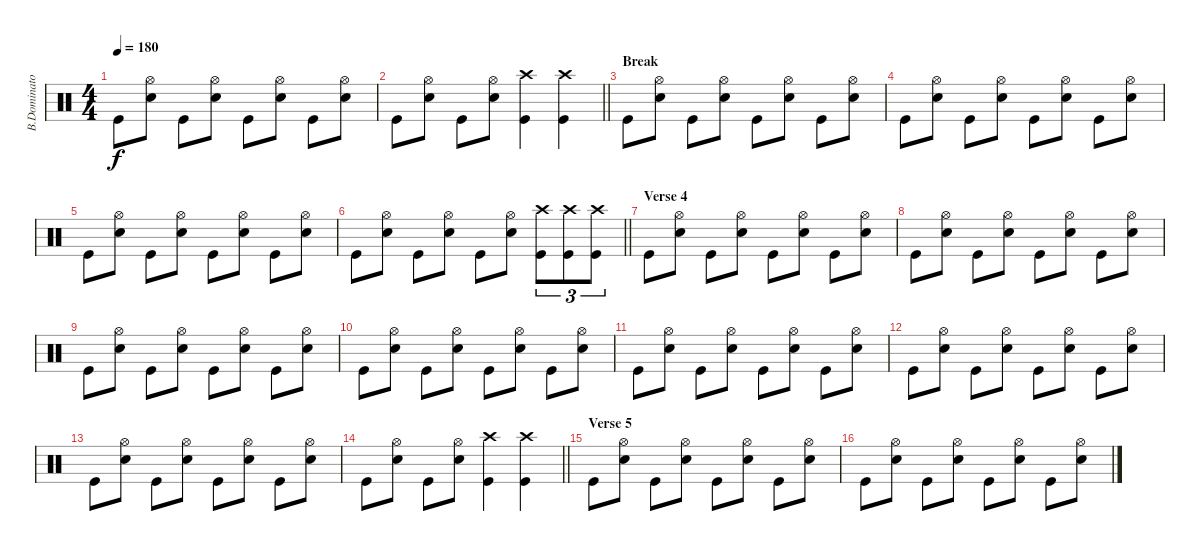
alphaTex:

\track ("B.Dominator" "B.Dominato") {instrument percussion}
\staff {score}
\articulation defaults
\ts (4 4)
\tempo 180
\clef neutral
\ks c "Kick (hit)".8{dy f}
("Hi-Hat (open)" "Snare (hit) 2").8 "Kick (hit)".8 ("Hi-Hat (open)" "Snare (hit) 2").8 "Kick (hit)".8 ("Hi-Hat (open)" "Snare (hit) 2").8 "Kick (hit)".8 ("Hi-Hat (open)" "Snare (hit) 2").8 |
\barLineRight lightlight "Kick (hit)".8
("Hi-Hat (open)" "Snare (hit) 2").8 "Kick (hit)".8 ("Hi-Hat (open)" "Snare (hit) 2").8 ("Crash high (hit)" "Kick (hit)").4 ("Crash high (hit)" "Kick (hit)").4 |
\section ("" "Break")
"Kick (hit)".8 ("Hi-Hat (open)" "Snare (hit) 2").8 "Kick (hit)".8 ("Hi-Hat (open)" "Snare (hit) 2").8 "Kick (hit)".8 ("Hi-Hat (open)" "Snare (hit) 2").8 "Kick (hit)".8 ("Hi-Hat (open)" "Snare (hit) 2").8 |
"Kick (hit)".8 ("Hi-Hat (open)" "Snare (hit) 2").8 "Kick (hit)".8 ("Hi-Hat (open)" "Snare (hit) 2").8 "Kick (hit)".8 ("Hi-Hat (open)" "Snare (hit) 2").8 "Kick (hit)".8 ("Hi-Hat (open)" "Snare (hit) 2").8 |
"Kick (hit)".8 ("Hi-Hat (open)" "Snare (hit) 2").8 "Kick (hit)".8 ("Hi-Hat (open)" "Snare (hit) 2").8 "Kick (hit)".8 ("Hi-Hat (open)" "Snare (hit) 2").8 "Kick (hit)".8 ("Hi-Hat (open)" "Snare (hit) 2").8 |
\barLineRight lightlight "Kick (hit)".8
("Hi-Hat (open)" "Snare (hit) 2").8 "Kick (hit)".8 ("Hi-Hat (open)" "Snare (hit) 2").8 "Kick (hit)".8 ("Hi-Hat (open)" "Snare (hit) 2").8 ("Crash high (hit)" "Kick (hit)").8{tu (3 2)} ("Crash high (hit)" "Kick (hit)").8{tu (3 2)} ("Crash high (hit)" "Kick (hit)").8{tu (3 2)} |
\section ("" "Verse 4")
"Kick (hit)".8 ("Hi-Hat (open)" "Snare (hit) 2").8 "Kick (hit)".8 ("Hi-Hat (open)" "Snare (hit) 2").8 "Kick (hit)".8 ("Hi-Hat (open)" "Snare (hit) 2").8 "Kick (hit)".8 ("Hi-Hat (open)" "Snare (hit) 2").8 |
"Kick (hit)".8 ("Hi-Hat (open)" "Snare (hit) 2").8 "Kick (hit)".8 ("Hi-Hat (open)" "Snare (hit) 2").8 "Kick (hit)".8 ("Hi-Hat (open)" "Snare (hit) 2").8 "Kick (hit)".8 ("Hi-Hat (open)" "Snare (hit) 2").8 |
"Kick (hit)".8 ("Hi-Hat (open)" "Snare (hit) 2").8 "Kick (hit)".8 ("Hi-Hat (open)" "Snare (hit) 2").8 "Kick (hit)".8 ("Hi-Hat (open)" "Snare (hit) 2").8 "Kick (hit)".8 ("Hi-Hat (open)" "Snare (hit) 2").8 |
"Kick (hit)".8 ("Hi-Hat (open)" "Snare (hit) 2").8 "Kick (hit)".8 ("Hi-Hat (open)" "Snare (hit) 2").8 "Kick (hit)".8 ("Hi-Hat (open)" "Snare (hit) 2").8 "Kick (hit)".8 ("Hi-Hat (open)" "Snare (hit) 2").8 |
"Kick (hit)".8 ("Hi-Hat (open)" "Snare (hit) 2").8 "Kick (hit)".8 ("Hi-Hat (open)" "Snare (hit) 2").8 "Kick (hit)".8 ("Hi-Hat (open)" "Snare (hit) 2").8 "Kick (hit)".8 ("Hi-Hat (open)" "Snare (hit) 2").8 |
"Kick (hit)".8 ("Hi-Hat (open)" "Snare (hit) 2").8 "Kick (hit)".8 ("Hi-Hat (open)" "Snare (hit) 2").8 "Kick (hit)".8 ("Hi-Hat (open)" "Snare (hit) 2").8 "Kick (hit)".8 ("Hi-Hat (open)" "Snare (hit) 2").8 |
"Kick (hit)".8 ("Hi-Hat (open)" "Snare (hit) 2").8 "Kick (hit)".8 ("Hi-Hat (open)" "Snare (hit) 2").8 "Kick (hit)".8 ("Hi-Hat (open)" "Snare (hit) 2").8 "Kick (hit)".8 ("Hi-Hat (open)" "Snare (hit) 2").8 |
\barLineRight lightlight "Kick (hit)".8
("Hi-Hat (open)" "Snare (hit) 2").8 "Kick (hit)".8 ("Hi-Hat (open)" "Snare (hit) 2").8 ("Crash high (hit)" "Kick (hit)").4 ("Crash high (hit)" "Kick (hit)").4 |
\section ("" "Verse 5")
"Kick (hit)".8 ("Hi-Hat (open)" "Snare (hit) 2").8 "Kick (hit)".8 ("Hi-Hat (open)" "Snare (hit) 2").8 "Kick (hit)".8 ("Hi-Hat (open)" "Snare (hit) 2").8 "Kick (hit)".8 ("Hi-Hat (open)" "Snare (hit) 2").8 |
"Kick (hit)".8 ("Hi-Hat (open)" "Snare (hit) 2").8 "Kick (hit)".8 ("Hi-Hat (open)" "Snare (hit) 2").8 "Kick (hit)".8 ("Hi-Hat (open)" "Snare (hit) 2").8 "Kick (hit)".8 ("Hi-Hat (open)" "Snare (hit) 2").8
